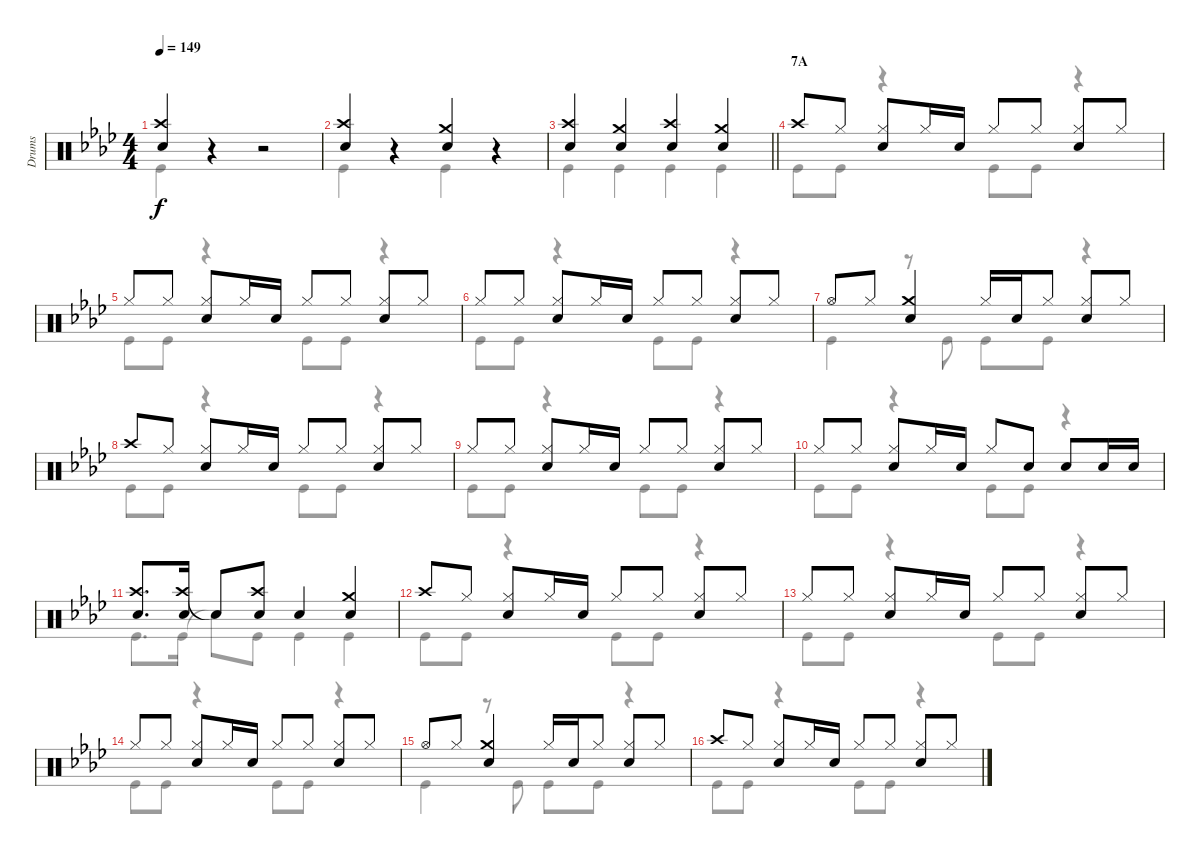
\track ("Drums" "Drums") {instrument percussion}
\staff {score}
\articulation defaults
\voice
\ts (4 4)
\tempo 149
\clef neutral
\ks ab
("Crash high (hit)" "Snare (hit) 2").4{dy f} r.4 r.2 |
("Crash high (hit)" "Snare (hit) 2").4 r.4 ("Crash medium (hit)" "Snare (hit) 2").4 r.4 |
\barLineRight lightlight
("Crash high (hit)" "Snare (hit) 2").4 ("Crash medium (hit)" "Snare (hit) 2").4 ("Crash high (hit)" "Snare (hit) 2").4 ("Crash medium (hit)" "Snare (hit) 2").4 |
\section ("" "7A")
"Crash high (hit)".8 "Hi-Hat (closed)".8 ("Hi-Hat (closed)" "Snare (hit) 2").8 "Hi-Hat (closed)".16 "Snare (hit) 2".16 "Hi-Hat (closed)".8 "Hi-Hat (closed)".8 ("Hi-Hat (closed)" "Snare (hit) 2").8 "Hi-Hat (closed)".8 |
"Hi-Hat (closed)".8 "Hi-Hat (closed)".8 ("Hi-Hat (closed)" "Snare (hit) 2").8 "Hi-Hat (closed)".16 "Snare (hit) 2".16 "Hi-Hat (closed)".8 "Hi-Hat (closed)".8 ("Hi-Hat (closed)" "Snare (hit) 2").8 "Hi-Hat (closed)".8 |
"Hi-Hat (closed)".8 "Hi-Hat (closed)".8 ("Hi-Hat (closed)" "Snare (hit) 2").8 "Hi-Hat (closed)".16 "Snare (hit) 2".16 "Hi-Hat (closed)".8 "Hi-Hat (closed)".8 ("Hi-Hat (closed)" "Snare (hit) 2").8 "Hi-Hat (closed)".8 |
"Hi-Hat (open)".8 "Hi-Hat (closed)".8 ("Crash medium (hit)" "Snare (hit) 2").4 "Hi-Hat (closed)".16 "Snare (hit) 2".16 "Hi-Hat (closed)".8 ("Hi-Hat (closed)" "Snare (hit) 2").8 "Hi-Hat (closed)".8 |
"Crash high (hit)".8 "Hi-Hat (closed)".8 ("Hi-Hat (closed)" "Snare (hit) 2").8 "Hi-Hat (closed)".16 "Snare (hit) 2".16 "Hi-Hat (closed)".8 "Hi-Hat (closed)".8 ("Hi-Hat (closed)" "Snare (hit) 2").8 "Hi-Hat (closed)".8 |
"Hi-Hat (closed)".8 "Hi-Hat (closed)".8 ("Hi-Hat (closed)" "Snare (hit) 2").8 "Hi-Hat (closed)".16 "Snare (hit) 2".16 "Hi-Hat (closed)".8 "Hi-Hat (closed)".8 ("Hi-Hat (closed)" "Snare (hit) 2").8 "Hi-Hat (closed)".8 |
"Hi-Hat (closed)".8 "Hi-Hat (closed)".8 ("Hi-Hat (closed)" "Snare (hit) 2").8 "Hi-Hat (closed)".16 "Snare (hit) 2".16 "Hi-Hat (closed)".8 "Snare (hit) 2".8 "Snare (hit) 2".8 "Snare (hit) 2".16 "Snare (hit) 2".16 |
("Crash high (hit)" "Snare (hit) 2").8{d} ("Crash high (hit)" "Snare (hit) 2").16 "Snare (hit)"{t}.8 ("Crash high (hit)" "Snare (hit) 2").8 "Snare (hit) 2".4 ("Crash medium (hit)" "Snare (hit) 2").4 |
"Crash high (hit)".8 "Hi-Hat (closed)".8 ("Hi-Hat (closed)" "Snare (hit) 2").8 "Hi-Hat (closed)".16 "Snare (hit) 2".16 "Hi-Hat (closed)".8 "Hi-Hat (closed)".8 ("Hi-Hat (closed)" "Snare (hit) 2").8 "Hi-Hat (closed)".8 |
"Hi-Hat (closed)".8 "Hi-Hat (closed)".8 ("Hi-Hat (closed)" "Snare (hit) 2").8 "Hi-Hat (closed)".16 "Snare (hit) 2".16 "Hi-Hat (closed)".8 "Hi-Hat (closed)".8 ("Hi-Hat (closed)" "Snare (hit) 2").8 "Hi-Hat (closed)".8 |
"Hi-Hat (closed)".8 "Hi-Hat (closed)".8 ("Hi-Hat (closed)" "Snare (hit) 2").8 "Hi-Hat (closed)".16 "Snare (hit) 2".16 "Hi-Hat (closed)".8 "Hi-Hat (closed)".8 ("Hi-Hat (closed)" "Snare (hit) 2").8 "Hi-Hat (closed)".8 |
"Hi-Hat (open)".8 "Hi-Hat (closed)".8 ("Crash medium (hit)" "Snare (hit) 2").4 "Hi-Hat (closed)".16 "Snare (hit) 2".16 "Hi-Hat (closed)".8 ("Hi-Hat (closed)" "Snare (hit) 2").8 "Hi-Hat (closed)".8 |
"Crash high (hit)".8 "Hi-Hat (closed)".8 ("Hi-Hat (closed)" "Snare (hit) 2").8 "Hi-Hat (closed)".16 "Snare (hit) 2".16 "Hi-Hat (closed)".8 "Hi-Hat (closed)".8 ("Hi-Hat (closed)" "Snare (hit) 2").8 "Hi-Hat (closed)".8
\voice
\clef neutral
\ottava regular
\simile none
\ks ab "Kick (hit)".4{dy f}
r.4 r.2 |
"Kick (hit)".4 r.4 "Kick (hit)".4 r.4 |
\barLineRight lightlight "Kick (hit)".4 "Kick (hit)".4 "Kick (hit)".4 "Kick (hit)".4
|
"Kick (hit)".8 "Kick (hit)".8 r.4 "Kick (hit)".8 "Kick (hit)".8 r.4 |
"Kick (hit)".8 "Kick (hit)".8 r.4 "Kick (hit)".8 "Kick (hit)".8 r.4 |
"Kick (hit)".8 "Kick (hit)".8 r.4 "Kick (hit)".8 "Kick (hit)".8 r.4 |
"Kick (hit)".4 r.8 "Kick (hit)".8 "Kick (hit)".8 "Kick (hit)".8 r.4 |
"Kick (hit)".8 "Kick (hit)".8 r.4 "Kick (hit)".8 "Kick (hit)".8 r.4 |
"Kick (hit)".8 "Kick (hit)".8 r.4 "Kick (hit)".8 "Kick (hit)".8 r.4 |
"Kick (hit)".8 "Kick (hit)".8 r.4 "Kick (hit)".8 "Kick (hit)".8 r.4 |
"Kick (hit)".8{d} "Kick (hit)".16 "Snare (hit)"{t}.8 "Kick (hit)".8 "Kick (hit)".4 "Kick (hit)".4 |
"Kick (hit)".8 "Kick (hit)".8 r.4 "Kick (hit)".8 "Kick (hit)".8 r.4 |
"Kick (hit)".8 "Kick (hit)".8 r.4 "Kick (hit)".8 "Kick (hit)".8 r.4 |
"Kick (hit)".8 "Kick (hit)".8 r.4 "Kick (hit)".8 "Kick (hit)".8 r.4 |
"Kick (hit)".4 r.8 "Kick (hit)".8 "Kick (hit)".8 "Kick (hit)".8 r.4 |
"Kick (hit)".8 "Kick (hit)".8 r.4 "Kick (hit)".8 "Kick (hit)".8 r.4
